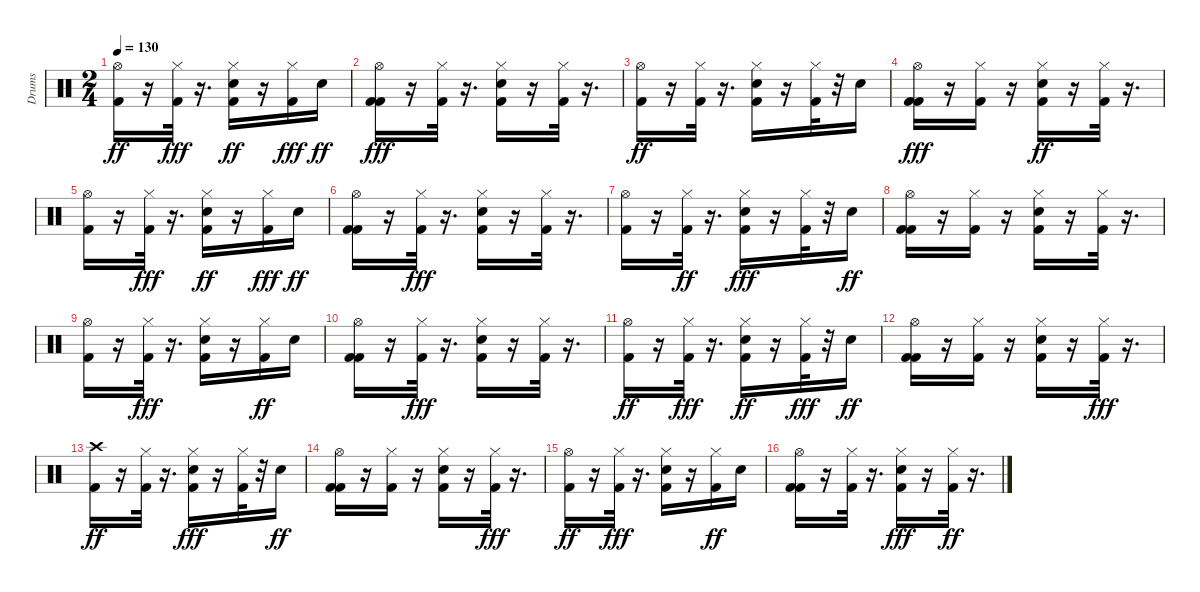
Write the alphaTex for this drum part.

\track ("Drums" "Drums") {solo instrument percussion}
\staff {score}
\articulation defaults
\ts (2 4)
\tempo 130
\clef neutral
\ks c
("Hi-Hat (open)" "Kick (hit) 2").16{dy ff} r.16 ("Kick (hit) 2" "Hi-Hat (closed)").32{dy fff} r.16{d} ("Snare (hit) 2" "Hi-Hat (closed)" "Kick (hit) 2").16{dy ff} r.16 ("Kick (hit) 2" "Hi-Hat (closed)").16{dy fff} "Snare (hit) 2".16{dy ff} |
("Kick (hit) 2" "Kick (hit) 2" "Hi-Hat (open)").16{dy fff} r.16 ("Kick (hit) 2" "Hi-Hat (closed)").32 r.16{d} ("Snare (hit) 2" "Kick (hit) 2" "Hi-Hat (closed)").16 r.16 ("Kick (hit) 2" "Hi-Hat (closed)").32 r.16{d} |
("Hi-Hat (open)" "Kick (hit) 2").16{dy ff} r.16 ("Hi-Hat (closed)" "Kick (hit) 2").32 r.16{d} ("Snare (hit) 2" "Hi-Hat (closed)" "Kick (hit) 2").16 r.16 ("Hi-Hat (closed)" "Kick (hit) 2").32 r.32 "Snare (hit) 2".16 |
("Kick (hit) 2" "Kick (hit) 2" "Hi-Hat (open)").16{dy fff} r.16 ("Kick (hit) 2" "Hi-Hat (closed)").16 r.16 ("Snare (hit) 2" "Hi-Hat (closed)" "Kick (hit) 2").16{dy ff} r.16 ("Hi-Hat (closed)" "Kick (hit) 2").32 r.16{d} |
("Hi-Hat (open)" "Kick (hit) 2").16 r.16 ("Kick (hit) 2" "Hi-Hat (closed)").32{dy fff} r.16{d} ("Hi-Hat (closed)" "Snare (hit) 2" "Kick (hit) 2").16{dy ff} r.16 ("Kick (hit) 2" "Hi-Hat (closed)").16{dy fff} "Snare (hit) 2".16{dy ff} |
("Hi-Hat (open)" "Kick (hit) 2" "Kick (hit) 2").16 r.16 ("Kick (hit) 2" "Hi-Hat (closed)").32{dy fff} r.16{d} ("Kick (hit) 2" "Snare (hit) 2" "Hi-Hat (closed)").16 r.16 ("Kick (hit) 2" "Hi-Hat (closed)").32 r.16{d} |
("Kick (hit) 2" "Hi-Hat (open)").16 r.16 ("Hi-Hat (closed)" "Kick (hit) 2").32{dy ff} r.16{d} ("Snare (hit) 2" "Kick (hit) 2" "Hi-Hat (closed)").16{dy fff} r.16 ("Kick (hit) 2" "Hi-Hat (closed)").32 r.32 "Snare (hit) 2".16{dy ff} |
("Hi-Hat (open)" "Kick (hit) 2" "Kick (hit) 2").16 r.16 ("Hi-Hat (closed)" "Kick (hit) 2").16 r.16 ("Kick (hit) 2" "Hi-Hat (closed)" "Snare (hit) 2").16 r.16 ("Hi-Hat (closed)" "Kick (hit) 2").32 r.16{d} |
("Hi-Hat (open)" "Kick (hit) 2").16 r.16 ("Kick (hit) 2" "Hi-Hat (closed)").32{dy fff} r.16{d} ("Snare (hit) 2" "Kick (hit) 2" "Hi-Hat (closed)").16 r.16 ("Hi-Hat (closed)" "Kick (hit) 2").16{dy ff} "Snare (hit) 2".16 |
("Hi-Hat (open)" "Kick (hit) 2" "Kick (hit) 2").16 r.16 ("Kick (hit) 2" "Hi-Hat (closed)").32{dy fff} r.16{d} ("Kick (hit) 2" "Snare (hit) 2" "Hi-Hat (closed)").16 r.16 ("Kick (hit) 2" "Hi-Hat (closed)").32 r.16{d} |
("Hi-Hat (open)" "Kick (hit) 2").16{dy ff} r.16 ("Kick (hit) 2" "Hi-Hat (closed)").32{dy fff} r.16{d} ("Kick (hit) 2" "Hi-Hat (closed)" "Snare (hit) 2").16{dy ff} r.16 ("Kick (hit) 2" "Hi-Hat (closed)").32{dy fff} r.32 "Snare (hit) 2".16{dy ff} |
("Kick (hit) 2" "Hi-Hat (open)" "Kick (hit) 2").16 r.16 ("Hi-Hat (closed)" "Kick (hit) 2").16 r.16 ("Hi-Hat (closed)" "Snare (hit) 2" "Kick (hit) 2").16 r.16 ("Kick (hit) 2" "Hi-Hat (closed)").32{dy fff} r.16{d} |
("Crash high (hit)" "Kick (hit) 2").16{dy ff} r.16 ("Hi-Hat (closed)" "Kick (hit) 2").32 r.16{d} ("Kick (hit) 2" "Snare (hit) 2" "Hi-Hat (closed)").16{dy fff} r.16 ("Kick (hit) 2" "Hi-Hat (closed)").32 r.32 "Snare (hit) 2".16{dy ff} |
("Kick (hit) 2" "Hi-Hat (open)" "Kick (hit) 2").16 r.16 ("Hi-Hat (closed)" "Kick (hit) 2").16 r.16 ("Snare (hit) 2" "Hi-Hat (closed)" "Kick (hit) 2").16 r.16 ("Kick (hit) 2" "Hi-Hat (closed)").32{dy fff} r.16{d} |
("Hi-Hat (open)" "Kick (hit) 2").16{dy ff} r.16 ("Kick (hit) 2" "Hi-Hat (closed)").32{dy fff} r.16{d} ("Snare (hit) 2" "Kick (hit) 2" "Hi-Hat (closed)").16 r.16 ("Hi-Hat (closed)" "Kick (hit) 2").16{dy ff} "Snare (hit) 2".16 |
("Hi-Hat (open)" "Kick (hit) 2" "Kick (hit) 2").16 r.16 ("Hi-Hat (closed)" "Kick (hit) 2").32 r.16{d} ("Snare (hit) 2" "Kick (hit) 2" "Hi-Hat (closed)").16{dy fff} r.16 ("Hi-Hat (closed)" "Kick (hit) 2").32{dy ff} r.16{d}
